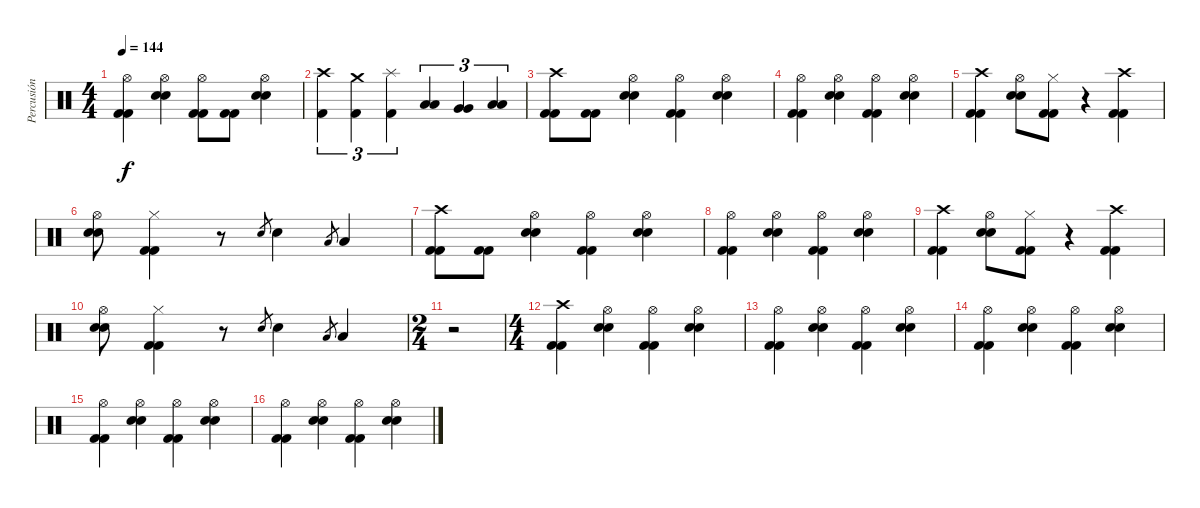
\track ("Percusión" "Percusión") {instrument percussion}
\staff {score}
\articulation defaults
\ts (4 4)
\tempo 144
\clef neutral
\ks c
("Hi-Hat (open)" "Kick (hit) 2" "Kick (hit) 2").4{dy f} ("Hi-Hat (open)" "Snare (hit) 2" "Snare (hit) 2").4 ("Hi-Hat (open)" "Kick (hit) 2" "Kick (hit) 2").8 ("Kick (hit) 2" "Kick (hit) 2").8 ("Hi-Hat (open)" "Snare (hit) 2" "Snare (hit) 2").4 |
("Crash high (hit)" "Kick (hit) 2").4{tu (3 2)} ("Crash medium (hit)" "Kick (hit) 2").4{tu (3 2)} ("Splash (hit)" "Kick (hit) 2").4{tu (3 2)} ("Low Tom (hit)" "Low Tom (hit)").4{tu (3 2)} ("Very Low Tom (hit)" "Very Low Tom (hit)").4{tu (3 2)} ("Low Floor Tom (hit)" "Low Floor Tom (hit)").4{tu (3 2)} |
("Crash high (hit)" "Kick (hit) 2" "Kick (hit) 2").8 ("Kick (hit) 2" "Kick (hit) 2").8 ("Hi-Hat (open)" "Snare (hit) 2" "Snare (hit) 2").4 ("Hi-Hat (open)" "Kick (hit) 2" "Kick (hit) 2").4 ("Hi-Hat (open)" "Snare (hit) 2" "Snare (hit) 2").4 |
("Hi-Hat (open)" "Kick (hit) 2" "Kick (hit) 2").4 ("Hi-Hat (open)" "Snare (hit) 2" "Snare (hit) 2").4 ("Hi-Hat (open)" "Kick (hit) 2" "Kick (hit) 2").4 ("Hi-Hat (open)" "Snare (hit) 2" "Snare (hit) 2").4 |
("Crash high (hit)" "Kick (hit) 2" "Kick (hit) 2").4 ("Hi-Hat (open)" "Snare (hit) 2" "Snare (hit) 2").8 ("Hi-Hat (closed)" "Kick (hit) 2" "Kick (hit) 2").8 r.4 ("Crash high (hit)" "Kick (hit) 2" "Kick (hit) 2").4 |
("Hi-Hat (open)" "Snare (hit) 2" "Snare (hit) 2").8 ("Hi-Hat (closed)" "Kick (hit) 2" "Kick (hit) 2").4 r.8 "Snare (hit) 2".8{gr} "Snare (hit) 2".4 "Low Tom (hit)".8{gr} "Low Tom (hit)".4 |
("Crash high (hit)" "Kick (hit) 2" "Kick (hit) 2").8 ("Kick (hit) 2" "Kick (hit) 2").8 ("Hi-Hat (open)" "Snare (hit) 2" "Snare (hit) 2").4 ("Hi-Hat (open)" "Kick (hit) 2" "Kick (hit) 2").4 ("Hi-Hat (open)" "Snare (hit) 2" "Snare (hit) 2").4 |
("Hi-Hat (open)" "Kick (hit) 2" "Kick (hit) 2").4 ("Hi-Hat (open)" "Snare (hit) 2" "Snare (hit) 2").4 ("Hi-Hat (open)" "Kick (hit) 2" "Kick (hit) 2").4 ("Hi-Hat (open)" "Snare (hit) 2" "Snare (hit) 2").4 |
("Crash high (hit)" "Kick (hit) 2" "Kick (hit) 2").4 ("Hi-Hat (open)" "Snare (hit) 2" "Snare (hit) 2").8 ("Hi-Hat (closed)" "Kick (hit) 2" "Kick (hit) 2").8 r.4 ("Crash high (hit)" "Kick (hit) 2" "Kick (hit) 2").4 |
("Hi-Hat (open)" "Snare (hit) 2" "Snare (hit) 2").8 ("Hi-Hat (closed)" "Kick (hit) 2" "Kick (hit) 2").4 r.8 "Snare (hit) 2".8{gr} "Snare (hit) 2".4 "Low Tom (hit)".8{gr} "Low Tom (hit)".4 |
\ts (2 4)
r.2 |
\ts (4 4)
("Crash high (hit)" "Kick (hit) 2" "Kick (hit) 2").4 ("Hi-Hat (open)" "Snare (hit) 2" "Snare (hit) 2").4 ("Hi-Hat (open)" "Kick (hit) 2" "Kick (hit) 2").4 ("Hi-Hat (open)" "Snare (hit) 2" "Snare (hit) 2").4 |
("Hi-Hat (open)" "Kick (hit) 2" "Kick (hit) 2").4 ("Hi-Hat (open)" "Snare (hit) 2" "Snare (hit) 2").4 ("Hi-Hat (open)" "Kick (hit) 2" "Kick (hit) 2").4 ("Hi-Hat (open)" "Snare (hit) 2" "Snare (hit) 2").4 |
("Hi-Hat (open)" "Kick (hit) 2" "Kick (hit) 2").4 ("Hi-Hat (open)" "Snare (hit) 2" "Snare (hit) 2").4 ("Hi-Hat (open)" "Kick (hit) 2" "Kick (hit) 2").4 ("Hi-Hat (open)" "Snare (hit) 2" "Snare (hit) 2").4 |
("Hi-Hat (open)" "Kick (hit) 2" "Kick (hit) 2").4 ("Hi-Hat (open)" "Snare (hit) 2" "Snare (hit) 2").4 ("Hi-Hat (open)" "Kick (hit) 2" "Kick (hit) 2").4 ("Hi-Hat (open)" "Snare (hit) 2" "Snare (hit) 2").4 |
("Hi-Hat (open)" "Kick (hit) 2" "Kick (hit) 2").4 ("Hi-Hat (open)" "Snare (hit) 2" "Snare (hit) 2").4 ("Hi-Hat (open)" "Kick (hit) 2" "Kick (hit) 2").4 ("Hi-Hat (open)" "Snare (hit) 2" "Snare (hit) 2").4
